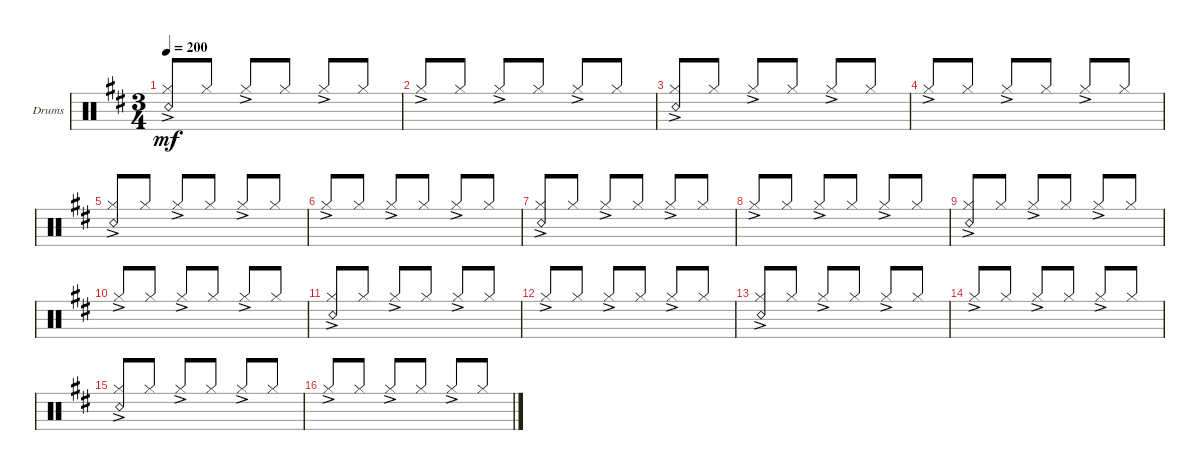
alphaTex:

\defaultSystemsLayout 4
\bracketExtendMode groupsimilarinstruments
\firstSystemTrackNameOrientation horizontal
\otherSystemsTrackNameOrientation horizontal
\track ("Drumkit" "Drums") {instrument percussion}
\staff {score}
\articulation defaults
\ts (3 4)
\tempo 200
\clef neutral
\ks d
("Hi-Hat (closed)"{ac} "Snare (rim shot)").8{dy mf beam invert} "Hi-Hat (closed)".8 "Hi-Hat (closed)"{ac}.8{beam invert} "Hi-Hat (closed)".8 "Hi-Hat (closed)"{ac}.8{beam invert} "Hi-Hat (closed)".8 |
"Hi-Hat (closed)"{ac}.8{beam invert} "Hi-Hat (closed)".8 "Hi-Hat (closed)"{ac}.8{beam invert} "Hi-Hat (closed)".8 "Hi-Hat (closed)"{ac}.8{beam invert} "Hi-Hat (closed)".8 |
("Hi-Hat (closed)"{ac} "Snare (rim shot)").8{beam invert} "Hi-Hat (closed)".8 "Hi-Hat (closed)"{ac}.8{beam invert} "Hi-Hat (closed)".8 "Hi-Hat (closed)"{ac}.8{beam invert} "Hi-Hat (closed)".8 |
"Hi-Hat (closed)"{ac}.8{beam invert} "Hi-Hat (closed)".8 "Hi-Hat (closed)"{ac}.8{beam invert} "Hi-Hat (closed)".8 "Hi-Hat (closed)"{ac}.8{beam invert} "Hi-Hat (closed)".8 |
("Hi-Hat (closed)"{ac} "Snare (rim shot)").8{beam invert} "Hi-Hat (closed)".8 "Hi-Hat (closed)"{ac}.8{beam invert} "Hi-Hat (closed)".8 "Hi-Hat (closed)"{ac}.8{beam invert} "Hi-Hat (closed)".8 |
"Hi-Hat (closed)"{ac}.8{beam invert} "Hi-Hat (closed)".8 "Hi-Hat (closed)"{ac}.8{beam invert} "Hi-Hat (closed)".8 "Hi-Hat (closed)"{ac}.8{beam invert} "Hi-Hat (closed)".8 |
("Hi-Hat (closed)"{ac} "Snare (rim shot)").8{beam invert} "Hi-Hat (closed)".8 "Hi-Hat (closed)"{ac}.8{beam invert} "Hi-Hat (closed)".8 "Hi-Hat (closed)"{ac}.8{beam invert} "Hi-Hat (closed)".8 |
"Hi-Hat (closed)"{ac}.8{beam invert} "Hi-Hat (closed)".8 "Hi-Hat (closed)"{ac}.8{beam invert} "Hi-Hat (closed)".8 "Hi-Hat (closed)"{ac}.8{beam invert} "Hi-Hat (closed)".8 |
("Hi-Hat (closed)"{ac} "Snare (rim shot)").8{beam invert} "Hi-Hat (closed)".8 "Hi-Hat (closed)"{ac}.8{beam invert} "Hi-Hat (closed)".8 "Hi-Hat (closed)"{ac}.8{beam invert} "Hi-Hat (closed)".8 |
"Hi-Hat (closed)"{ac}.8{beam invert} "Hi-Hat (closed)".8 "Hi-Hat (closed)"{ac}.8{beam invert} "Hi-Hat (closed)".8 "Hi-Hat (closed)"{ac}.8{beam invert} "Hi-Hat (closed)".8 |
("Hi-Hat (closed)"{ac} "Snare (rim shot)").8{beam invert} "Hi-Hat (closed)".8 "Hi-Hat (closed)"{ac}.8{beam invert} "Hi-Hat (closed)".8 "Hi-Hat (closed)"{ac}.8{beam invert} "Hi-Hat (closed)".8 |
"Hi-Hat (closed)"{ac}.8{beam invert} "Hi-Hat (closed)".8 "Hi-Hat (closed)"{ac}.8{beam invert} "Hi-Hat (closed)".8 "Hi-Hat (closed)"{ac}.8{beam invert} "Hi-Hat (closed)".8 |
("Hi-Hat (closed)"{ac} "Snare (rim shot)").8{beam invert} "Hi-Hat (closed)".8 "Hi-Hat (closed)"{ac}.8{beam invert} "Hi-Hat (closed)".8 "Hi-Hat (closed)"{ac}.8{beam invert} "Hi-Hat (closed)".8 |
"Hi-Hat (closed)"{ac}.8{beam invert} "Hi-Hat (closed)".8 "Hi-Hat (closed)"{ac}.8{beam invert} "Hi-Hat (closed)".8 "Hi-Hat (closed)"{ac}.8{beam invert} "Hi-Hat (closed)".8 |
("Hi-Hat (closed)"{ac} "Snare (rim shot)").8{beam invert} "Hi-Hat (closed)".8 "Hi-Hat (closed)"{ac}.8{beam invert} "Hi-Hat (closed)".8 "Hi-Hat (closed)"{ac}.8{beam invert} "Hi-Hat (closed)".8 |
"Hi-Hat (closed)"{ac}.8{beam invert} "Hi-Hat (closed)".8 "Hi-Hat (closed)"{ac}.8{beam invert} "Hi-Hat (closed)".8 "Hi-Hat (closed)"{ac}.8{beam invert} "Hi-Hat (closed)".8
